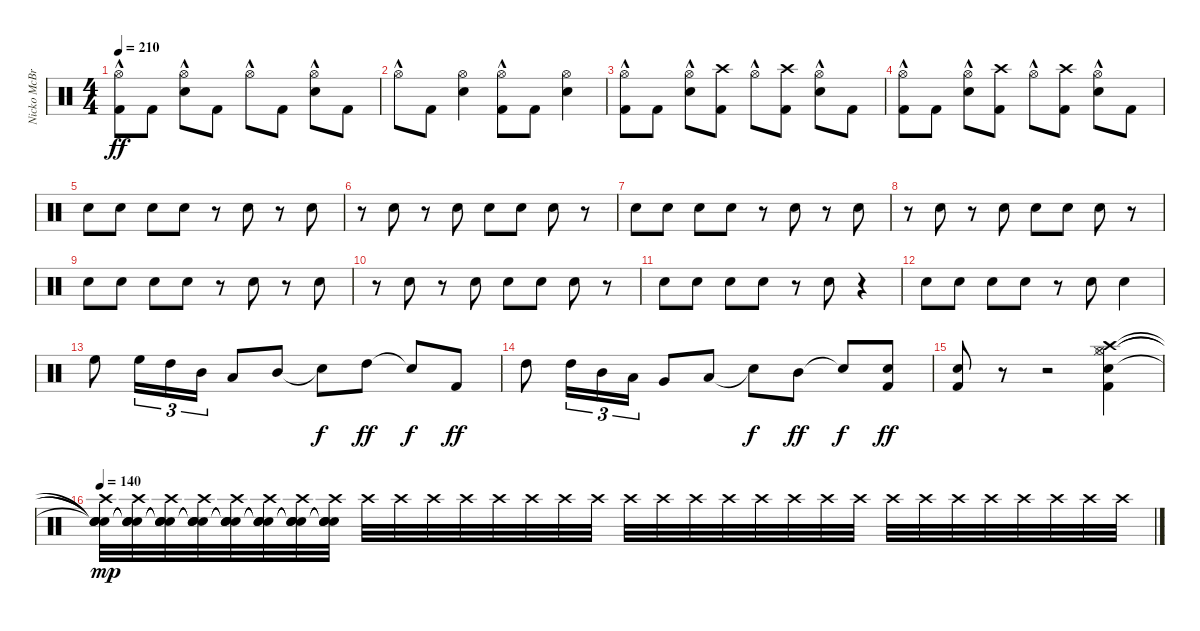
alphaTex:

\track ("Nicko McBrain" "Nicko McBr") {instrument percussion}
\staff {score}
\articulation defaults
\ts (4 4)
\tempo 210
\clef neutral
\ks c
("Kick (hit) 2" "Hi-Hat (open)"{hac}).8{dy ff} "Kick (hit) 2".8 ("Snare (hit) 2" "Hi-Hat (open)"{hac}).8 "Kick (hit) 2".8 "Hi-Hat (open)"{hac}.8 "Kick (hit) 2".8 ("Snare (hit) 2" "Hi-Hat (open)"{hac}).8 "Kick (hit) 2".8 |
"Hi-Hat (open)"{hac}.8 "Kick (hit) 2".8 ("Snare (hit) 2" "Hi-Hat (open)").4 ("Kick (hit) 2" "Hi-Hat (open)"{hac}).8 "Kick (hit) 2".8 ("Snare (hit) 2" "Hi-Hat (open)").4 |
("Kick (hit) 2" "Hi-Hat (open)"{hac}).8 "Kick (hit) 2".8 ("Snare (hit) 2" "Hi-Hat (open)"{hac}).8 ("Kick (hit) 2" "Crash high (hit)").8 "Hi-Hat (open)"{hac}.8 ("Kick (hit) 2" "Crash high (hit)").8 ("Snare (hit) 2" "Hi-Hat (open)"{hac}).8 "Kick (hit) 2".8 |
("Kick (hit) 2" "Hi-Hat (open)"{hac}).8 "Kick (hit) 2".8 ("Snare (hit) 2" "Hi-Hat (open)"{hac}).8 ("Kick (hit) 2" "Crash high (hit)").8 "Hi-Hat (open)"{hac}.8 ("Kick (hit) 2" "Crash high (hit)").8 ("Snare (hit) 2" "Hi-Hat (open)"{hac}).8 "Kick (hit) 2".8 |
"Snare (hit) 2".8 "Snare (hit) 2".8 "Snare (hit) 2".8 "Snare (hit) 2".8 r.8 "Snare (hit) 2".8 r.8 "Snare (hit) 2".8 |
r.8 "Snare (hit) 2".8 r.8 "Snare (hit) 2".8 "Snare (hit) 2".8 "Snare (hit) 2".8 "Snare (hit) 2".8 r.8 |
"Snare (hit) 2".8 "Snare (hit) 2".8 "Snare (hit) 2".8 "Snare (hit) 2".8 r.8 "Snare (hit) 2".8 r.8 "Snare (hit) 2".8 |
r.8 "Snare (hit) 2".8 r.8 "Snare (hit) 2".8 "Snare (hit) 2".8 "Snare (hit) 2".8 "Snare (hit) 2".8 r.8 |
"Snare (hit) 2".8 "Snare (hit) 2".8 "Snare (hit) 2".8 "Snare (hit) 2".8 r.8 "Snare (hit) 2".8 r.8 "Snare (hit) 2".8 |
r.8 "Snare (hit) 2".8 r.8 "Snare (hit) 2".8 "Snare (hit) 2".8 "Snare (hit) 2".8 "Snare (hit) 2".8 r.8 |
"Snare (hit) 2".8 "Snare (hit) 2".8 "Snare (hit) 2".8 "Snare (hit) 2".8 r.8 "Snare (hit) 2".8 r.4 |
"Snare (hit) 2".8 "Snare (hit) 2".8 "Snare (hit) 2".8 "Snare (hit) 2".8 r.8 "Snare (hit) 2".8 "Snare (hit) 2".4 |
"High Floor Tom (hit)".8 "High Floor Tom (hit)".16{tu (3 2)} "High Tom (hit)".16{tu (3 2)} "Mid Tom (hit)".16{tu (3 2)} "Low Tom (hit)".8 "Mid Tom (hit)".8 "Snare (hit)"{t}.8{dy f} "High Tom (hit)".8{dy ff} "Snare (hit)"{t}.8{dy f} "Kick (hit) 2".8{dy ff} |
"High Tom (hit)".8 "High Tom (hit)".16{tu (3 2)} "Mid Tom (hit)".16{tu (3 2)} "Low Tom (hit)".16{tu (3 2)} "Very Low Tom (hit)".8 "Low Tom (hit)".8 "Snare (hit)"{t}.8{dy f} "Mid Tom (hit)".8{dy ff} "Snare (hit)"{t}.8{dy f} ("Kick (hit) 2" "Snare (hit) 2").8{dy ff} |
("Kick (hit) 2" "Snare (hit) 2").8 r.8 r.2 ("Kick (hit) 2" "Crash high (hit)" "Hi-Hat (closed)" "Hi-Hat (open)" "Snare (hit) 2").4 |
\tempo 140
("Crash high (hit)" "Snare (hit)"{t} "Snare (hit)"{t} "Snare (hit)"{t} "Snare (hit)"{t}).32{dy mp volume 11} ("Crash high (hit)" "Snare (hit)"{t} "Snare (hit)"{t} "Snare (hit)"{t} "Snare (hit)"{t}).32 ("Crash high (hit)" "Snare (hit)"{t} "Snare (hit)"{t} "Snare (hit)"{t} "Snare (hit)"{t}).32 ("Crash high (hit)" "Snare (hit)"{t} "Snare (hit)"{t} "Snare (hit)"{t} "Snare (hit)"{t}).32 ("Crash high (hit)" "Snare (hit)"{t} "Snare (hit)"{t} "Snare (hit)"{t} "Snare (hit)"{t}).32 ("Crash high (hit)" "Snare (hit)"{t} "Snare (hit)"{t} "Snare (hit)"{t} "Snare (hit)"{t}).32 ("Crash high (hit)" "Snare (hit)"{t} "Snare (hit)"{t} "Snare (hit)"{t} "Snare (hit)"{t}).32 ("Crash high (hit)" "Snare (hit)"{t} "Snare (hit)"{t} "Snare (hit)"{t} "Snare (hit)"{t}).32 "Crash high (hit)".32 "Crash high (hit)".32 "Crash high (hit)".32 "Crash high (hit)".32 "Crash high (hit)".32 "Crash high (hit)".32 "Crash high (hit)".32 "Crash high (hit)".32 "Crash high (hit)".32 "Crash high (hit)".32 "Crash high (hit)".32 "Crash high (hit)".32 "Crash high (hit)".32 "Crash high (hit)".32 "Crash high (hit)".32 "Crash high (hit)".32 "Crash high (hit)".32 "Crash high (hit)".32 "Crash high (hit)".32 "Crash high (hit)".32 "Crash high (hit)".32 "Crash high (hit)".32 "Crash high (hit)".32 "Crash high (hit)".32
